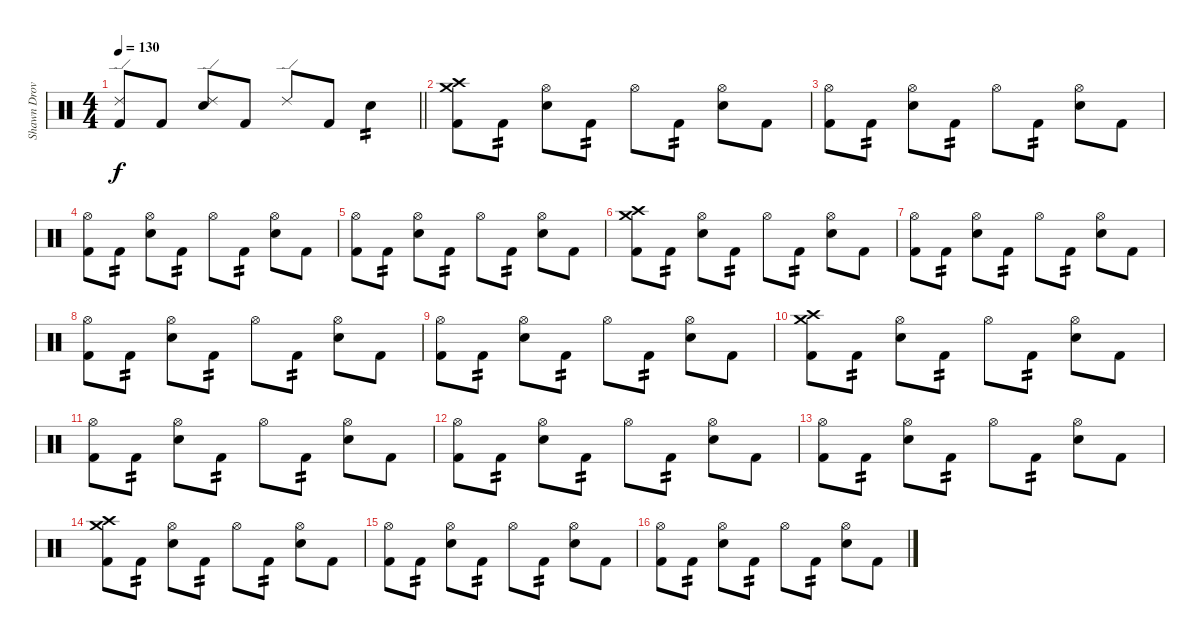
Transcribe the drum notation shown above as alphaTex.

\track ("Shawn Drover" "Shawn Drov") {instrument percussion}
\staff {score}
\articulation defaults
\ts (4 4)
\tempo 130
\clef neutral
\barLineRight lightlight
\ks c
("Ride (edge) 2" "Kick (hit) 2").8{dy f} "Kick (hit) 2".8 ("Ride (edge) 2" "Snare (hit) 2").8 "Kick (hit) 2".8 "Ride (edge) 2".8 "Kick (hit) 2".8 "Snare (hit) 2".4{tp 2} |
("Crash high (hit)" "Crash medium (hit)" "Kick (hit) 2").8 "Kick (hit) 2".8{tp 2} ("Hi-Hat (open)" "Snare (hit) 2").8 "Kick (hit) 2".8{tp 2} "Hi-Hat (open)".8 "Kick (hit) 2".8{tp 2} ("Hi-Hat (open)" "Snare (hit) 2").8 "Kick (hit) 2".8 |
("Hi-Hat (open)" "Kick (hit) 2").8 "Kick (hit) 2".8{tp 2} ("Hi-Hat (open)" "Snare (hit) 2").8 "Kick (hit) 2".8{tp 2} "Hi-Hat (open)".8 "Kick (hit) 2".8{tp 2} ("Hi-Hat (open)" "Snare (hit) 2").8 "Kick (hit) 2".8 |
("Hi-Hat (open)" "Kick (hit) 2").8 "Kick (hit) 2".8{tp 2} ("Hi-Hat (open)" "Snare (hit) 2").8 "Kick (hit) 2".8{tp 2} "Hi-Hat (open)".8 "Kick (hit) 2".8{tp 2} ("Hi-Hat (open)" "Snare (hit) 2").8 "Kick (hit) 2".8 |
("Hi-Hat (open)" "Kick (hit) 2").8 "Kick (hit) 2".8{tp 2} ("Hi-Hat (open)" "Snare (hit) 2").8 "Kick (hit) 2".8{tp 2} "Hi-Hat (open)".8 "Kick (hit) 2".8{tp 2} ("Hi-Hat (open)" "Snare (hit) 2").8 "Kick (hit) 2".8 |
("Crash high (hit)" "Crash medium (hit)" "Kick (hit) 2").8 "Kick (hit) 2".8{tp 2} ("Hi-Hat (open)" "Snare (hit) 2").8 "Kick (hit) 2".8{tp 2} "Hi-Hat (open)".8 "Kick (hit) 2".8{tp 2} ("Hi-Hat (open)" "Snare (hit) 2").8 "Kick (hit) 2".8 |
("Hi-Hat (open)" "Kick (hit) 2").8 "Kick (hit) 2".8{tp 2} ("Hi-Hat (open)" "Snare (hit) 2").8 "Kick (hit) 2".8{tp 2} "Hi-Hat (open)".8 "Kick (hit) 2".8{tp 2} ("Hi-Hat (open)" "Snare (hit) 2").8 "Kick (hit) 2".8 |
("Hi-Hat (open)" "Kick (hit) 2").8 "Kick (hit) 2".8{tp 2} ("Hi-Hat (open)" "Snare (hit) 2").8 "Kick (hit) 2".8{tp 2} "Hi-Hat (open)".8 "Kick (hit) 2".8{tp 2} ("Hi-Hat (open)" "Snare (hit) 2").8 "Kick (hit) 2".8 |
("Hi-Hat (open)" "Kick (hit) 2").8 "Kick (hit) 2".8{tp 2} ("Hi-Hat (open)" "Snare (hit) 2").8 "Kick (hit) 2".8{tp 2} "Hi-Hat (open)".8 "Kick (hit) 2".8{tp 2} ("Hi-Hat (open)" "Snare (hit) 2").8 "Kick (hit) 2".8 |
("Crash high (hit)" "Crash medium (hit)" "Kick (hit) 2").8 "Kick (hit) 2".8{tp 2} ("Hi-Hat (open)" "Snare (hit) 2").8 "Kick (hit) 2".8{tp 2} "Hi-Hat (open)".8 "Kick (hit) 2".8{tp 2} ("Hi-Hat (open)" "Snare (hit) 2").8 "Kick (hit) 2".8 |
("Hi-Hat (open)" "Kick (hit) 2").8 "Kick (hit) 2".8{tp 2} ("Hi-Hat (open)" "Snare (hit) 2").8 "Kick (hit) 2".8{tp 2} "Hi-Hat (open)".8 "Kick (hit) 2".8{tp 2} ("Hi-Hat (open)" "Snare (hit) 2").8 "Kick (hit) 2".8 |
("Hi-Hat (open)" "Kick (hit) 2").8 "Kick (hit) 2".8{tp 2} ("Hi-Hat (open)" "Snare (hit) 2").8 "Kick (hit) 2".8{tp 2} "Hi-Hat (open)".8 "Kick (hit) 2".8{tp 2} ("Hi-Hat (open)" "Snare (hit) 2").8 "Kick (hit) 2".8 |
("Hi-Hat (open)" "Kick (hit) 2").8 "Kick (hit) 2".8{tp 2} ("Hi-Hat (open)" "Snare (hit) 2").8 "Kick (hit) 2".8{tp 2} "Hi-Hat (open)".8 "Kick (hit) 2".8{tp 2} ("Hi-Hat (open)" "Snare (hit) 2").8 "Kick (hit) 2".8 |
("Crash high (hit)" "Crash medium (hit)" "Kick (hit) 2").8 "Kick (hit) 2".8{tp 2} ("Hi-Hat (open)" "Snare (hit) 2").8 "Kick (hit) 2".8{tp 2} "Hi-Hat (open)".8 "Kick (hit) 2".8{tp 2} ("Hi-Hat (open)" "Snare (hit) 2").8 "Kick (hit) 2".8 |
("Hi-Hat (open)" "Kick (hit) 2").8 "Kick (hit) 2".8{tp 2} ("Hi-Hat (open)" "Snare (hit) 2").8 "Kick (hit) 2".8{tp 2} "Hi-Hat (open)".8 "Kick (hit) 2".8{tp 2} ("Hi-Hat (open)" "Snare (hit) 2").8 "Kick (hit) 2".8 |
("Hi-Hat (open)" "Kick (hit) 2").8 "Kick (hit) 2".8{tp 2} ("Hi-Hat (open)" "Snare (hit) 2").8 "Kick (hit) 2".8{tp 2} "Hi-Hat (open)".8 "Kick (hit) 2".8{tp 2} ("Hi-Hat (open)" "Snare (hit) 2").8 "Kick (hit) 2".8
